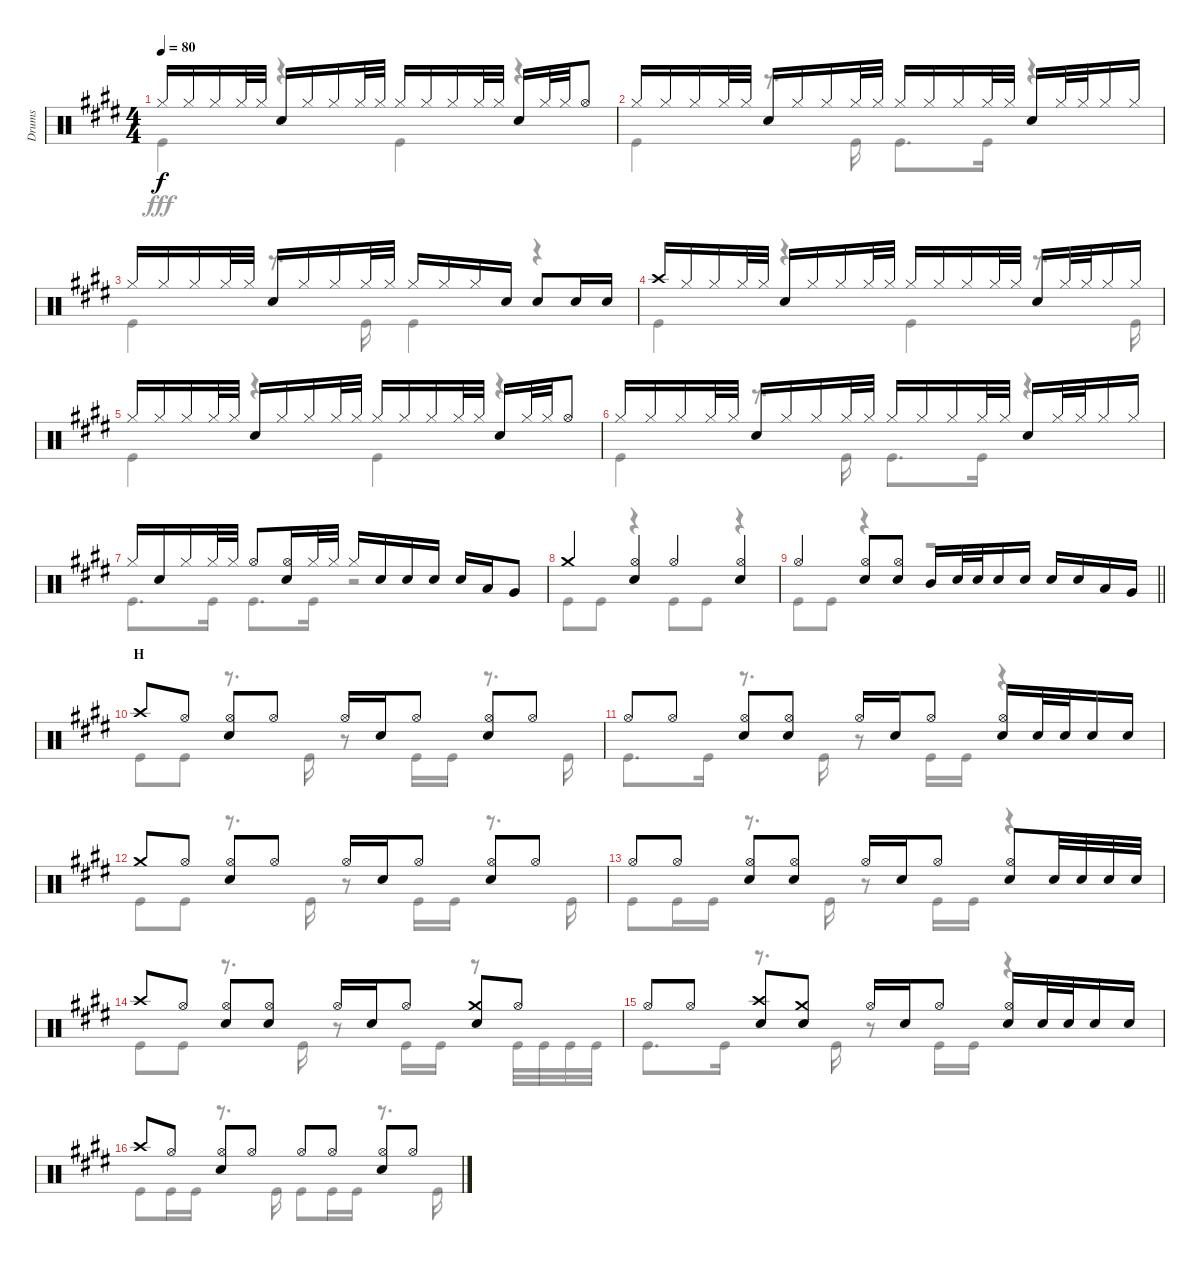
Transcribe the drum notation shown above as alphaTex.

\track ("Drums" "Drums") {instrument percussion}
\staff {score}
\articulation defaults
\voice
\ts (4 4)
\tempo 80
\clef neutral
\ks e "Hi-Hat (closed)".16{dy f} "Hi-Hat (closed)".16 "Hi-Hat (closed)".16 "Hi-Hat (closed)".32 "Hi-Hat (closed)".32 "Snare (hit) 2".16 "Hi-Hat (closed)".16 "Hi-Hat (closed)".16 "Hi-Hat (closed)".32 "Hi-Hat (closed)".32 "Hi-Hat (closed)".16 "Hi-Hat (closed)".16 "Hi-Hat (closed)".16 "Hi-Hat (closed)".32 "Hi-Hat (closed)".32 "Snare (hit) 2".16 "Hi-Hat (closed)".32 "Hi-Hat (closed)".32 "Hi-Hat (open)".8
|
"Hi-Hat (closed)".16 "Hi-Hat (closed)".16 "Hi-Hat (closed)".16 "Hi-Hat (closed)".32 "Hi-Hat (closed)".32 "Snare (hit) 2".16 "Hi-Hat (closed)".16 "Hi-Hat (closed)".16 "Hi-Hat (closed)".32 "Hi-Hat (closed)".32 "Hi-Hat (closed)".16 "Hi-Hat (closed)".16 "Hi-Hat (closed)".16 "Hi-Hat (closed)".32 "Hi-Hat (closed)".32 "Snare (hit) 2".16 "Hi-Hat (closed)".32 "Hi-Hat (closed)".32 "Hi-Hat (closed)".16 "Hi-Hat (closed)".16 |
"Hi-Hat (closed)".16 "Hi-Hat (closed)".16 "Hi-Hat (closed)".16 "Hi-Hat (closed)".32 "Hi-Hat (closed)".32 "Snare (hit) 2".16 "Hi-Hat (closed)".16 "Hi-Hat (closed)".16 "Hi-Hat (closed)".32 "Hi-Hat (closed)".32 "Hi-Hat (closed)".16 "Hi-Hat (closed)".16 "Hi-Hat (closed)".16 "Snare (hit) 2".16 "Snare (hit) 2".8 "Snare (hit) 2".16 "Snare (hit) 2".16 |
"Crash high (hit)".16 "Hi-Hat (closed)".16 "Hi-Hat (closed)".16 "Hi-Hat (closed)".32 "Hi-Hat (closed)".32 "Snare (hit) 2".16 "Hi-Hat (closed)".16 "Hi-Hat (closed)".16 "Hi-Hat (closed)".32 "Hi-Hat (closed)".32 "Hi-Hat (closed)".16 "Hi-Hat (closed)".16 "Hi-Hat (closed)".16 "Hi-Hat (closed)".32 "Hi-Hat (closed)".32 "Snare (hit) 2".16 "Hi-Hat (closed)".32 "Hi-Hat (closed)".32 "Hi-Hat (closed)".16 "Hi-Hat (closed)".16 |
"Hi-Hat (closed)".16 "Hi-Hat (closed)".16 "Hi-Hat (closed)".16 "Hi-Hat (closed)".32 "Hi-Hat (closed)".32 "Snare (hit) 2".16 "Hi-Hat (closed)".16 "Hi-Hat (closed)".16 "Hi-Hat (closed)".32 "Hi-Hat (closed)".32 "Hi-Hat (closed)".16 "Hi-Hat (closed)".16 "Hi-Hat (closed)".16 "Hi-Hat (closed)".32 "Hi-Hat (closed)".32 "Snare (hit) 2".16 "Hi-Hat (closed)".32 "Hi-Hat (closed)".32 "Hi-Hat (open)".8 |
"Hi-Hat (closed)".16 "Hi-Hat (closed)".16 "Hi-Hat (closed)".16 "Hi-Hat (closed)".32 "Hi-Hat (closed)".32 "Snare (hit) 2".16 "Hi-Hat (closed)".16 "Hi-Hat (closed)".16 "Hi-Hat (closed)".32 "Hi-Hat (closed)".32 "Hi-Hat (closed)".16 "Hi-Hat (closed)".16 "Hi-Hat (closed)".16 "Hi-Hat (closed)".32 "Hi-Hat (closed)".32 "Snare (hit) 2".16 "Hi-Hat (closed)".32 "Hi-Hat (closed)".32 "Hi-Hat (closed)".16 "Hi-Hat (closed)".16 |
"Hi-Hat (closed)".16 "Snare (hit) 2".16 "Hi-Hat (closed)".16 "Hi-Hat (closed)".32 "Hi-Hat (closed)".32 "Hi-Hat (open)".8 ("Hi-Hat (open)" "Snare (hit) 2").16 "Hi-Hat (closed)".32 "Hi-Hat (closed)".32 "Hi-Hat (closed)".16 "Snare (hit) 2".16 "Snare (hit) 2".16 "Snare (hit) 2".16 "Snare (hit) 2".16 "Low Tom (hit)".16 "Very Low Tom (hit)".8 |
"Crash medium (hit)".4 ("Hi-Hat (open)" "Snare (hit) 2").4 "Hi-Hat (open)".4 ("Hi-Hat (open)" "Snare (hit) 2").4 |
\barLineRight lightlight "Hi-Hat (open)".4
("Hi-Hat (open)" "Snare (hit) 2").8 ("Hi-Hat (open)" "Snare (hit) 2").8 "Mid Tom (hit)".16 "Snare (hit) 2".32 "Snare (hit) 2".32 "Snare (hit) 2".16 "Snare (hit) 2".16 "Snare (hit) 2".16 "Snare (hit) 2".16 "Low Tom (hit)".16 "Very Low Tom (hit)".16 |
\section ("" "H")
"Crash high (hit)".8 "Hi-Hat (open)".8 ("Hi-Hat (open)" "Snare (hit) 2").8 "Hi-Hat (open)".8 "Hi-Hat (open)".16 "Snare (hit) 2".16 "Hi-Hat (open)".8 ("Hi-Hat (open)" "Snare (hit) 2").8 "Hi-Hat (open)".8 |
"Hi-Hat (open)".8 "Hi-Hat (open)".8 ("Hi-Hat (open)" "Snare (hit) 2").8 ("Hi-Hat (open)" "Snare (hit) 2").8 "Hi-Hat (open)".16 "Snare (hit) 2".16 "Hi-Hat (open)".8 ("Hi-Hat (open)" "Snare (hit) 2").16 "Snare (hit) 2".32 "Snare (hit) 2".32 "Snare (hit) 2".16 "Snare (hit) 2".16 |
"Crash medium (hit)".8 "Hi-Hat (open)".8 ("Hi-Hat (open)" "Snare (hit) 2").8 "Hi-Hat (open)".8 "Hi-Hat (open)".16 "Snare (hit) 2".16 "Hi-Hat (open)".8 ("Hi-Hat (open)" "Snare (hit) 2").8 "Hi-Hat (open)".8 |
"Hi-Hat (open)".8 "Hi-Hat (open)".8 ("Hi-Hat (open)" "Snare (hit) 2").8 ("Hi-Hat (open)" "Snare (hit) 2").8 "Hi-Hat (open)".16 "Snare (hit) 2".16 "Hi-Hat (open)".8 ("Hi-Hat (open)" "Snare (hit) 2").8 "Snare (hit) 2".32 "Snare (hit) 2".32 "Snare (hit) 2".32 "Snare (hit) 2".32 |
"Crash high (hit)".8 "Hi-Hat (open)".8 ("Hi-Hat (open)" "Snare (hit) 2").8 ("Hi-Hat (open)" "Snare (hit) 2").8 "Hi-Hat (open)".16 "Snare (hit) 2".16 "Hi-Hat (open)".8 ("Crash medium (hit)" "Snare (hit) 2").8 "Hi-Hat (open)".8 |
"Hi-Hat (open)".8 "Hi-Hat (open)".8 ("Crash high (hit)" "Snare (hit) 2").8 ("Crash medium (hit)" "Snare (hit) 2").8 "Hi-Hat (open)".16 "Snare (hit) 2".16 "Hi-Hat (open)".8 ("Hi-Hat (open)" "Snare (hit) 2").16 "Snare (hit) 2".32 "Snare (hit) 2".32 "Snare (hit) 2".16 "Snare (hit) 2".16 |
"Crash high (hit)".8 "Hi-Hat (open)".8 ("Hi-Hat (open)" "Snare (hit) 2").8 "Hi-Hat (open)".8 "Hi-Hat (open)".8 "Hi-Hat (open)".8 ("Hi-Hat (open)" "Snare (hit) 2").8 "Hi-Hat (open)".8
\voice
\clef neutral
\ottava regular
\simile none
\ks e "Kick (hit)".4{dy fff}
r.4 "Kick (hit)".4 r.4 |
"Kick (hit)".4 r.8{d} "Kick (hit)".16 "Kick (hit)".8{d} "Kick (hit)".16 r.4 |
"Kick (hit)".4 r.8{d} "Kick (hit)".16 "Kick (hit)".4 r.4 |
"Kick (hit)".4 r.4 "Kick (hit)".4 r.8{d} "Kick (hit)".16 |
"Kick (hit)".4 r.4 "Kick (hit)".4 r.4 |
"Kick (hit)".4 r.8{d} "Kick (hit)".16 "Kick (hit)".8{d} "Kick (hit)".16 r.4 |
"Kick (hit)".8{d} "Kick (hit)".16 "Kick (hit)".8{d} "Kick (hit)".16 r.2 |
"Kick (hit)".8 "Kick (hit)".8 r.4 "Kick (hit)".8 "Kick (hit)".8 r.4 |
\barLineRight lightlight "Kick (hit)".8 "Kick (hit)".8
r.4 r.2 |
"Kick (hit)".8 "Kick (hit)".8 r.8{d} "Kick (hit)".16 r.8 "Kick (hit)".16 "Kick (hit)".16 r.8{d} "Kick (hit)".16 |
"Kick (hit)".8{d} "Kick (hit)".16 r.8{d} "Kick (hit)".16 r.8 "Kick (hit)".16 "Kick (hit)".16 r.4 |
"Kick (hit)".8 "Kick (hit)".8 r.8{d} "Kick (hit)".16 r.8 "Kick (hit)".16 "Kick (hit)".16 r.8{d} "Kick (hit)".16 |
"Kick (hit)".8 "Kick (hit)".16 "Kick (hit)".16 r.8{d} "Kick (hit)".16 r.8 "Kick (hit)".16 "Kick (hit)".16 r.4 |
"Kick (hit)".8 "Kick (hit)".8 r.8{d} "Kick (hit)".16 r.8 "Kick (hit)".16 "Kick (hit)".16 r.8 "Kick (hit)".32 "Kick (hit)".32 "Kick (hit)".32 "Kick (hit)".32 |
"Kick (hit)".8{d} "Kick (hit)".16 r.8{d} "Kick (hit)".16 r.8 "Kick (hit)".16 "Kick (hit)".16 r.4 |
"Kick (hit)".8 "Kick (hit)".16 "Kick (hit)".16 r.8{d} "Kick (hit)".16 "Kick (hit)".8 "Kick (hit)".16 "Kick (hit)".16 r.8{d} "Kick (hit)".16
